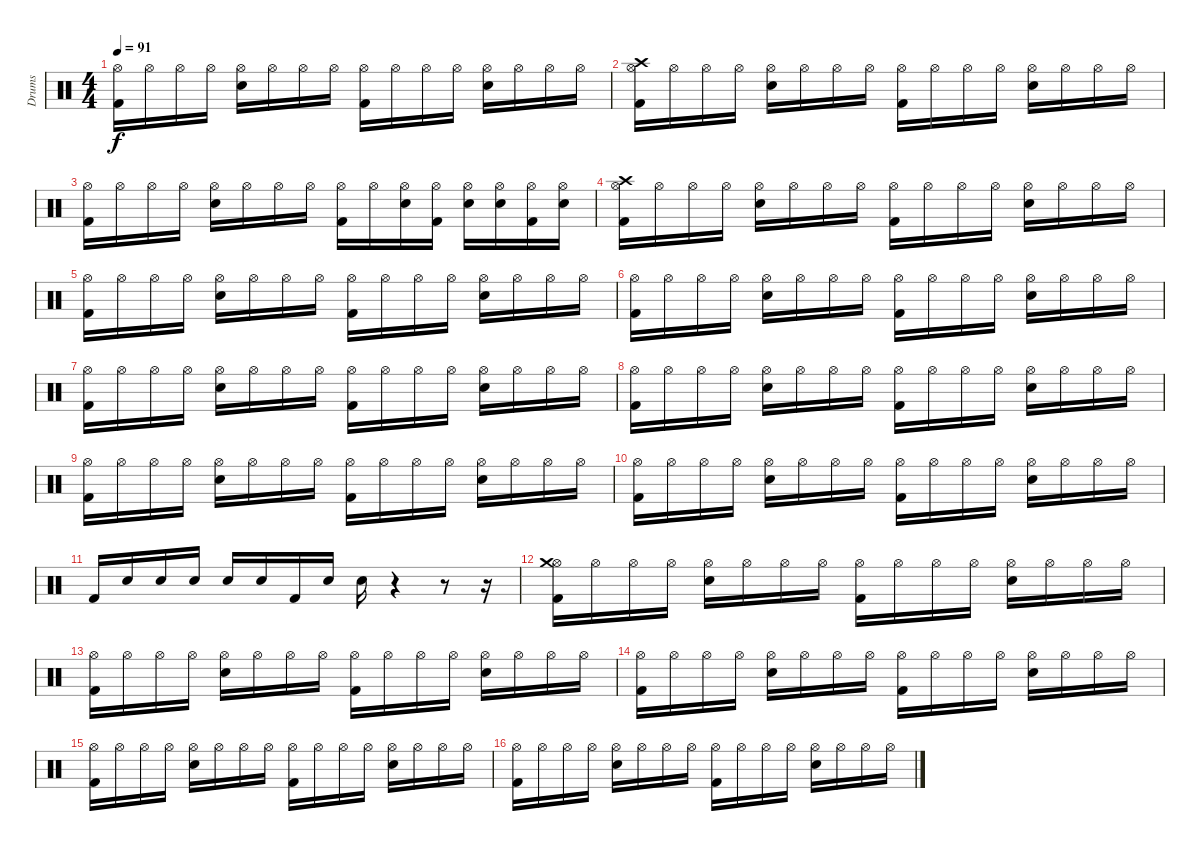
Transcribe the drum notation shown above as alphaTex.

\track ("Drums" "Drums") {instrument percussion}
\staff {score}
\articulation defaults
\ts (4 4)
\tempo 91
\clef neutral
\ks c
("Kick (hit) 2" "Hi-Hat (open)").16{dy f} "Hi-Hat (open)".16 "Hi-Hat (open)".16 "Hi-Hat (open)".16 ("Snare (hit) 2" "Hi-Hat (open)").16 "Hi-Hat (open)".16 "Hi-Hat (open)".16 "Hi-Hat (open)".16 ("Kick (hit) 2" "Hi-Hat (open)").16 "Hi-Hat (open)".16 "Hi-Hat (open)".16 "Hi-Hat (open)".16 ("Snare (hit) 2" "Hi-Hat (open)").16 "Hi-Hat (open)".16 "Hi-Hat (open)".16 "Hi-Hat (open)".16 |
("Crash high (hit)" "Kick (hit) 2" "Hi-Hat (open)").16 "Hi-Hat (open)".16 "Hi-Hat (open)".16 "Hi-Hat (open)".16 ("Snare (hit) 2" "Hi-Hat (open)").16 "Hi-Hat (open)".16 "Hi-Hat (open)".16 "Hi-Hat (open)".16 ("Kick (hit) 2" "Hi-Hat (open)").16 "Hi-Hat (open)".16 "Hi-Hat (open)".16 "Hi-Hat (open)".16 ("Snare (hit) 2" "Hi-Hat (open)").16 "Hi-Hat (open)".16 "Hi-Hat (open)".16 "Hi-Hat (open)".16 |
("Kick (hit) 2" "Hi-Hat (open)").16 "Hi-Hat (open)".16 "Hi-Hat (open)".16 "Hi-Hat (open)".16 ("Snare (hit) 2" "Hi-Hat (open)").16 "Hi-Hat (open)".16 "Hi-Hat (open)".16 "Hi-Hat (open)".16 ("Kick (hit) 2" "Hi-Hat (open)").16 "Hi-Hat (open)".16 ("Snare (hit) 2" "Hi-Hat (open)").16 ("Kick (hit) 2" "Hi-Hat (open)").16 ("Snare (hit) 2" "Hi-Hat (open)").16 ("Snare (hit) 2" "Hi-Hat (open)").16 ("Kick (hit) 2" "Hi-Hat (open)").16 ("Snare (hit) 2" "Hi-Hat (open)").16 |
("Kick (hit) 2" "Hi-Hat (open)" "Crash high (hit)").16 "Hi-Hat (open)".16 "Hi-Hat (open)".16 "Hi-Hat (open)".16 ("Snare (hit) 2" "Hi-Hat (open)").16 "Hi-Hat (open)".16 "Hi-Hat (open)".16 "Hi-Hat (open)".16 ("Kick (hit) 2" "Hi-Hat (open)").16 "Hi-Hat (open)".16 "Hi-Hat (open)".16 "Hi-Hat (open)".16 ("Snare (hit) 2" "Hi-Hat (open)").16 "Hi-Hat (open)".16 "Hi-Hat (open)".16 "Hi-Hat (open)".16 |
("Kick (hit) 2" "Hi-Hat (open)").16 "Hi-Hat (open)".16 "Hi-Hat (open)".16 "Hi-Hat (open)".16 ("Snare (hit) 2" "Hi-Hat (open)").16 "Hi-Hat (open)".16 "Hi-Hat (open)".16 "Hi-Hat (open)".16 ("Kick (hit) 2" "Hi-Hat (open)").16 "Hi-Hat (open)".16 "Hi-Hat (open)".16 "Hi-Hat (open)".16 ("Snare (hit) 2" "Hi-Hat (open)").16 "Hi-Hat (open)".16 "Hi-Hat (open)".16 "Hi-Hat (open)".16 |
("Kick (hit) 2" "Hi-Hat (open)").16 "Hi-Hat (open)".16 "Hi-Hat (open)".16 "Hi-Hat (open)".16 ("Snare (hit) 2" "Hi-Hat (open)").16 "Hi-Hat (open)".16 "Hi-Hat (open)".16 "Hi-Hat (open)".16 ("Kick (hit) 2" "Hi-Hat (open)").16 "Hi-Hat (open)".16 "Hi-Hat (open)".16 "Hi-Hat (open)".16 ("Snare (hit) 2" "Hi-Hat (open)").16 "Hi-Hat (open)".16 "Hi-Hat (open)".16 "Hi-Hat (open)".16 |
("Kick (hit) 2" "Hi-Hat (open)").16 "Hi-Hat (open)".16 "Hi-Hat (open)".16 "Hi-Hat (open)".16 ("Snare (hit) 2" "Hi-Hat (open)").16 "Hi-Hat (open)".16 "Hi-Hat (open)".16 "Hi-Hat (open)".16 ("Kick (hit) 2" "Hi-Hat (open)").16 "Hi-Hat (open)".16 "Hi-Hat (open)".16 "Hi-Hat (open)".16 ("Snare (hit) 2" "Hi-Hat (open)").16 "Hi-Hat (open)".16 "Hi-Hat (open)".16 "Hi-Hat (open)".16 |
("Kick (hit) 2" "Hi-Hat (open)").16 "Hi-Hat (open)".16 "Hi-Hat (open)".16 "Hi-Hat (open)".16 ("Snare (hit) 2" "Hi-Hat (open)").16 "Hi-Hat (open)".16 "Hi-Hat (open)".16 "Hi-Hat (open)".16 ("Kick (hit) 2" "Hi-Hat (open)").16 "Hi-Hat (open)".16 "Hi-Hat (open)".16 "Hi-Hat (open)".16 ("Snare (hit) 2" "Hi-Hat (open)").16 "Hi-Hat (open)".16 "Hi-Hat (open)".16 "Hi-Hat (open)".16 |
("Kick (hit) 2" "Hi-Hat (open)").16 "Hi-Hat (open)".16 "Hi-Hat (open)".16 "Hi-Hat (open)".16 ("Snare (hit) 2" "Hi-Hat (open)").16 "Hi-Hat (open)".16 "Hi-Hat (open)".16 "Hi-Hat (open)".16 ("Kick (hit) 2" "Hi-Hat (open)").16 "Hi-Hat (open)".16 "Hi-Hat (open)".16 "Hi-Hat (open)".16 ("Snare (hit) 2" "Hi-Hat (open)").16 "Hi-Hat (open)".16 "Hi-Hat (open)".16 "Hi-Hat (open)".16 |
("Kick (hit) 2" "Hi-Hat (open)").16 "Hi-Hat (open)".16 "Hi-Hat (open)".16 "Hi-Hat (open)".16 ("Snare (hit) 2" "Hi-Hat (open)").16 "Hi-Hat (open)".16 "Hi-Hat (open)".16 "Hi-Hat (open)".16 ("Kick (hit) 2" "Hi-Hat (open)").16 "Hi-Hat (open)".16 "Hi-Hat (open)".16 "Hi-Hat (open)".16 ("Snare (hit) 2" "Hi-Hat (open)").16 "Hi-Hat (open)".16 "Hi-Hat (open)".16 "Hi-Hat (open)".16 |
"Kick (hit) 2".16 "Snare (hit) 2".16 "Snare (hit) 2".16 "Snare (hit) 2".16 "Snare (hit) 2".16 "Snare (hit) 2".16 "Kick (hit) 2".16 "Snare (hit) 2".16 "Snare (hit) 2".16 r.4 r.8 r.16 |
("Kick (hit) 2" "Hi-Hat (open)" "Crash medium (hit)").16 "Hi-Hat (open)".16 "Hi-Hat (open)".16 "Hi-Hat (open)".16 ("Snare (hit) 2" "Hi-Hat (open)").16 "Hi-Hat (open)".16 "Hi-Hat (open)".16 "Hi-Hat (open)".16 ("Kick (hit) 2" "Hi-Hat (open)").16 "Hi-Hat (open)".16 "Hi-Hat (open)".16 "Hi-Hat (open)".16 ("Snare (hit) 2" "Hi-Hat (open)").16 "Hi-Hat (open)".16 "Hi-Hat (open)".16 "Hi-Hat (open)".16 |
("Kick (hit) 2" "Hi-Hat (open)").16 "Hi-Hat (open)".16 "Hi-Hat (open)".16 "Hi-Hat (open)".16 ("Snare (hit) 2" "Hi-Hat (open)").16 "Hi-Hat (open)".16 "Hi-Hat (open)".16 "Hi-Hat (open)".16 ("Kick (hit) 2" "Hi-Hat (open)").16 "Hi-Hat (open)".16 "Hi-Hat (open)".16 "Hi-Hat (open)".16 ("Snare (hit) 2" "Hi-Hat (open)").16 "Hi-Hat (open)".16 "Hi-Hat (open)".16 "Hi-Hat (open)".16 |
("Kick (hit) 2" "Hi-Hat (open)").16 "Hi-Hat (open)".16 "Hi-Hat (open)".16 "Hi-Hat (open)".16 ("Snare (hit) 2" "Hi-Hat (open)").16 "Hi-Hat (open)".16 "Hi-Hat (open)".16 "Hi-Hat (open)".16 ("Kick (hit) 2" "Hi-Hat (open)").16 "Hi-Hat (open)".16 "Hi-Hat (open)".16 "Hi-Hat (open)".16 ("Snare (hit) 2" "Hi-Hat (open)").16 "Hi-Hat (open)".16 "Hi-Hat (open)".16 "Hi-Hat (open)".16 |
("Kick (hit) 2" "Hi-Hat (open)").16 "Hi-Hat (open)".16 "Hi-Hat (open)".16 "Hi-Hat (open)".16 ("Snare (hit) 2" "Hi-Hat (open)").16 "Hi-Hat (open)".16 "Hi-Hat (open)".16 "Hi-Hat (open)".16 ("Kick (hit) 2" "Hi-Hat (open)").16 "Hi-Hat (open)".16 "Hi-Hat (open)".16 "Hi-Hat (open)".16 ("Snare (hit) 2" "Hi-Hat (open)").16 "Hi-Hat (open)".16 "Hi-Hat (open)".16 "Hi-Hat (open)".16 |
("Kick (hit) 2" "Hi-Hat (open)").16 "Hi-Hat (open)".16 "Hi-Hat (open)".16 "Hi-Hat (open)".16 ("Snare (hit) 2" "Hi-Hat (open)").16 "Hi-Hat (open)".16 "Hi-Hat (open)".16 "Hi-Hat (open)".16 ("Kick (hit) 2" "Hi-Hat (open)").16 "Hi-Hat (open)".16 "Hi-Hat (open)".16 "Hi-Hat (open)".16 ("Snare (hit) 2" "Hi-Hat (open)").16 "Hi-Hat (open)".16 "Hi-Hat (open)".16 "Hi-Hat (open)".16
